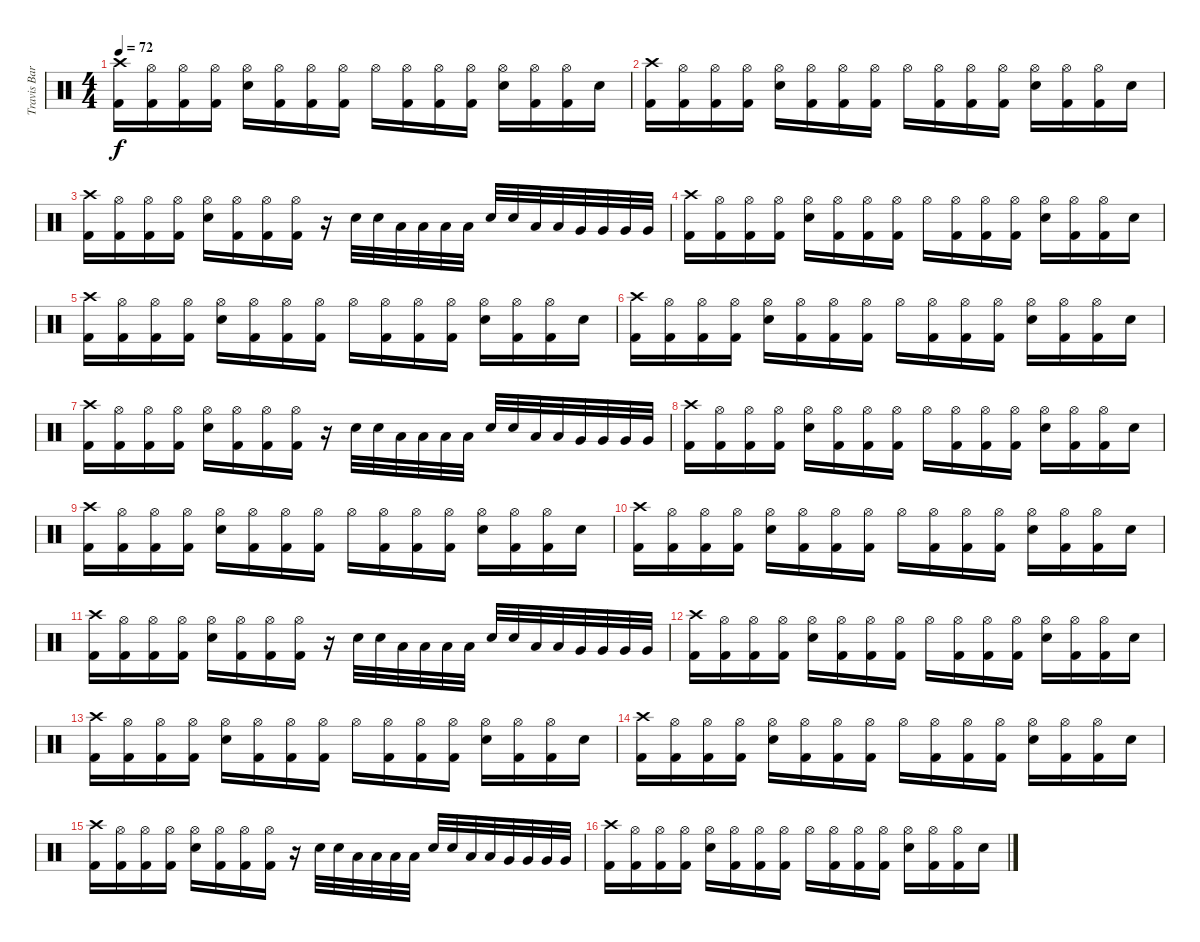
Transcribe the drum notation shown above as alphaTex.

\track ("Travis Barker" "Travis Bar") {instrument percussion}
\staff {score}
\articulation defaults
\ts (4 4)
\tempo 72
\clef neutral
\ks c
("Crash high (hit)" "Kick (hit) 2").16{dy f} ("Hi-Hat (open)" "Kick (hit) 2").16 ("Hi-Hat (open)" "Kick (hit) 2").16 ("Hi-Hat (open)" "Kick (hit) 2").16 ("Hi-Hat (open)" "Electric Snare (hit)").16 ("Hi-Hat (open)" "Kick (hit) 2").16 ("Hi-Hat (open)" "Kick (hit) 2").16 ("Hi-Hat (open)" "Kick (hit) 2").16 "Hi-Hat (open)".16 ("Hi-Hat (open)" "Kick (hit) 2").16 ("Hi-Hat (open)" "Kick (hit) 2").16 ("Hi-Hat (open)" "Kick (hit) 2").16 ("Hi-Hat (open)" "Electric Snare (hit)").16 ("Hi-Hat (open)" "Kick (hit) 2").16 ("Hi-Hat (open)" "Kick (hit) 2").16 "Electric Snare (hit)".16 |
("Crash high (hit)" "Kick (hit) 2").16 ("Hi-Hat (open)" "Kick (hit) 2").16 ("Hi-Hat (open)" "Kick (hit) 2").16 ("Hi-Hat (open)" "Kick (hit) 2").16 ("Hi-Hat (open)" "Electric Snare (hit)").16 ("Hi-Hat (open)" "Kick (hit) 2").16 ("Hi-Hat (open)" "Kick (hit) 2").16 ("Hi-Hat (open)" "Kick (hit) 2").16 "Hi-Hat (open)".16 ("Hi-Hat (open)" "Kick (hit) 2").16 ("Hi-Hat (open)" "Kick (hit) 2").16 ("Hi-Hat (open)" "Kick (hit) 2").16 ("Hi-Hat (open)" "Electric Snare (hit)").16 ("Hi-Hat (open)" "Kick (hit) 2").16 ("Hi-Hat (open)" "Kick (hit) 2").16 "Electric Snare (hit)".16 |
("Crash high (hit)" "Kick (hit) 2").16 ("Hi-Hat (open)" "Kick (hit) 2").16 ("Hi-Hat (open)" "Kick (hit) 2").16 ("Hi-Hat (open)" "Kick (hit) 2").16 ("Hi-Hat (open)" "Electric Snare (hit)").16 ("Hi-Hat (open)" "Kick (hit) 2").16 ("Hi-Hat (open)" "Kick (hit) 2").16 ("Hi-Hat (open)" "Kick (hit) 2").16 r.16 "Electric Snare (hit)".32 "Electric Snare (hit)".32 "Low Tom (hit)".32 "Low Tom (hit)".32 "Low Tom (hit)".32 "Low Tom (hit)".32 "Electric Snare (hit)".32 "Electric Snare (hit)".32 "Low Tom (hit)".32 "Low Tom (hit)".32 "Very Low Tom (hit)".32 "Very Low Tom (hit)".32 "Very Low Tom (hit)".32 "Very Low Tom (hit)".32 |
("Crash high (hit)" "Kick (hit) 2").16 ("Hi-Hat (open)" "Kick (hit) 2").16 ("Hi-Hat (open)" "Kick (hit) 2").16 ("Hi-Hat (open)" "Kick (hit) 2").16 ("Hi-Hat (open)" "Electric Snare (hit)").16 ("Hi-Hat (open)" "Kick (hit) 2").16 ("Hi-Hat (open)" "Kick (hit) 2").16 ("Hi-Hat (open)" "Kick (hit) 2").16 "Hi-Hat (open)".16 ("Hi-Hat (open)" "Kick (hit) 2").16 ("Hi-Hat (open)" "Kick (hit) 2").16 ("Hi-Hat (open)" "Kick (hit) 2").16 ("Hi-Hat (open)" "Electric Snare (hit)").16 ("Hi-Hat (open)" "Kick (hit) 2").16 ("Hi-Hat (open)" "Kick (hit) 2").16 "Electric Snare (hit)".16 |
("Crash high (hit)" "Kick (hit) 2").16 ("Hi-Hat (open)" "Kick (hit) 2").16 ("Hi-Hat (open)" "Kick (hit) 2").16 ("Hi-Hat (open)" "Kick (hit) 2").16 ("Hi-Hat (open)" "Electric Snare (hit)").16 ("Hi-Hat (open)" "Kick (hit) 2").16 ("Hi-Hat (open)" "Kick (hit) 2").16 ("Hi-Hat (open)" "Kick (hit) 2").16 "Hi-Hat (open)".16 ("Hi-Hat (open)" "Kick (hit) 2").16 ("Hi-Hat (open)" "Kick (hit) 2").16 ("Hi-Hat (open)" "Kick (hit) 2").16 ("Hi-Hat (open)" "Electric Snare (hit)").16 ("Hi-Hat (open)" "Kick (hit) 2").16 ("Hi-Hat (open)" "Kick (hit) 2").16 "Electric Snare (hit)".16 |
("Crash high (hit)" "Kick (hit) 2").16 ("Hi-Hat (open)" "Kick (hit) 2").16 ("Hi-Hat (open)" "Kick (hit) 2").16 ("Hi-Hat (open)" "Kick (hit) 2").16 ("Hi-Hat (open)" "Electric Snare (hit)").16 ("Hi-Hat (open)" "Kick (hit) 2").16 ("Hi-Hat (open)" "Kick (hit) 2").16 ("Hi-Hat (open)" "Kick (hit) 2").16 "Hi-Hat (open)".16 ("Hi-Hat (open)" "Kick (hit) 2").16 ("Hi-Hat (open)" "Kick (hit) 2").16 ("Hi-Hat (open)" "Kick (hit) 2").16 ("Hi-Hat (open)" "Electric Snare (hit)").16 ("Hi-Hat (open)" "Kick (hit) 2").16 ("Hi-Hat (open)" "Kick (hit) 2").16 "Electric Snare (hit)".16 |
("Crash high (hit)" "Kick (hit) 2").16 ("Hi-Hat (open)" "Kick (hit) 2").16 ("Hi-Hat (open)" "Kick (hit) 2").16 ("Hi-Hat (open)" "Kick (hit) 2").16 ("Hi-Hat (open)" "Electric Snare (hit)").16 ("Hi-Hat (open)" "Kick (hit) 2").16 ("Hi-Hat (open)" "Kick (hit) 2").16 ("Hi-Hat (open)" "Kick (hit) 2").16 r.16 "Electric Snare (hit)".32 "Electric Snare (hit)".32 "Low Tom (hit)".32 "Low Tom (hit)".32 "Low Tom (hit)".32 "Low Tom (hit)".32 "Electric Snare (hit)".32 "Electric Snare (hit)".32 "Low Tom (hit)".32 "Low Tom (hit)".32 "Very Low Tom (hit)".32 "Very Low Tom (hit)".32 "Very Low Tom (hit)".32 "Very Low Tom (hit)".32 |
("Crash high (hit)" "Kick (hit) 2").16 ("Hi-Hat (open)" "Kick (hit) 2").16 ("Hi-Hat (open)" "Kick (hit) 2").16 ("Hi-Hat (open)" "Kick (hit) 2").16 ("Hi-Hat (open)" "Electric Snare (hit)").16 ("Hi-Hat (open)" "Kick (hit) 2").16 ("Hi-Hat (open)" "Kick (hit) 2").16 ("Hi-Hat (open)" "Kick (hit) 2").16 "Hi-Hat (open)".16 ("Hi-Hat (open)" "Kick (hit) 2").16 ("Hi-Hat (open)" "Kick (hit) 2").16 ("Hi-Hat (open)" "Kick (hit) 2").16 ("Hi-Hat (open)" "Electric Snare (hit)").16 ("Hi-Hat (open)" "Kick (hit) 2").16 ("Hi-Hat (open)" "Kick (hit) 2").16 "Electric Snare (hit)".16 |
("Crash high (hit)" "Kick (hit) 2").16 ("Hi-Hat (open)" "Kick (hit) 2").16 ("Hi-Hat (open)" "Kick (hit) 2").16 ("Hi-Hat (open)" "Kick (hit) 2").16 ("Hi-Hat (open)" "Electric Snare (hit)").16 ("Hi-Hat (open)" "Kick (hit) 2").16 ("Hi-Hat (open)" "Kick (hit) 2").16 ("Hi-Hat (open)" "Kick (hit) 2").16 "Hi-Hat (open)".16 ("Hi-Hat (open)" "Kick (hit) 2").16 ("Hi-Hat (open)" "Kick (hit) 2").16 ("Hi-Hat (open)" "Kick (hit) 2").16 ("Hi-Hat (open)" "Electric Snare (hit)").16 ("Hi-Hat (open)" "Kick (hit) 2").16 ("Hi-Hat (open)" "Kick (hit) 2").16 "Electric Snare (hit)".16 |
("Crash high (hit)" "Kick (hit) 2").16 ("Hi-Hat (open)" "Kick (hit) 2").16 ("Hi-Hat (open)" "Kick (hit) 2").16 ("Hi-Hat (open)" "Kick (hit) 2").16 ("Hi-Hat (open)" "Electric Snare (hit)").16 ("Hi-Hat (open)" "Kick (hit) 2").16 ("Hi-Hat (open)" "Kick (hit) 2").16 ("Hi-Hat (open)" "Kick (hit) 2").16 "Hi-Hat (open)".16 ("Hi-Hat (open)" "Kick (hit) 2").16 ("Hi-Hat (open)" "Kick (hit) 2").16 ("Hi-Hat (open)" "Kick (hit) 2").16 ("Hi-Hat (open)" "Electric Snare (hit)").16 ("Hi-Hat (open)" "Kick (hit) 2").16 ("Hi-Hat (open)" "Kick (hit) 2").16 "Electric Snare (hit)".16 |
("Crash high (hit)" "Kick (hit) 2").16 ("Hi-Hat (open)" "Kick (hit) 2").16 ("Hi-Hat (open)" "Kick (hit) 2").16 ("Hi-Hat (open)" "Kick (hit) 2").16 ("Hi-Hat (open)" "Electric Snare (hit)").16 ("Hi-Hat (open)" "Kick (hit) 2").16 ("Hi-Hat (open)" "Kick (hit) 2").16 ("Hi-Hat (open)" "Kick (hit) 2").16 r.16 "Electric Snare (hit)".32 "Electric Snare (hit)".32 "Low Tom (hit)".32 "Low Tom (hit)".32 "Low Tom (hit)".32 "Low Tom (hit)".32 "Electric Snare (hit)".32 "Electric Snare (hit)".32 "Low Tom (hit)".32 "Low Tom (hit)".32 "Very Low Tom (hit)".32 "Very Low Tom (hit)".32 "Very Low Tom (hit)".32 "Very Low Tom (hit)".32 |
("Crash high (hit)" "Kick (hit) 2").16 ("Hi-Hat (open)" "Kick (hit) 2").16 ("Hi-Hat (open)" "Kick (hit) 2").16 ("Hi-Hat (open)" "Kick (hit) 2").16 ("Hi-Hat (open)" "Electric Snare (hit)").16 ("Hi-Hat (open)" "Kick (hit) 2").16 ("Hi-Hat (open)" "Kick (hit) 2").16 ("Hi-Hat (open)" "Kick (hit) 2").16 "Hi-Hat (open)".16 ("Hi-Hat (open)" "Kick (hit) 2").16 ("Hi-Hat (open)" "Kick (hit) 2").16 ("Hi-Hat (open)" "Kick (hit) 2").16 ("Hi-Hat (open)" "Electric Snare (hit)").16 ("Hi-Hat (open)" "Kick (hit) 2").16 ("Hi-Hat (open)" "Kick (hit) 2").16 "Electric Snare (hit)".16 |
("Crash high (hit)" "Kick (hit) 2").16 ("Hi-Hat (open)" "Kick (hit) 2").16 ("Hi-Hat (open)" "Kick (hit) 2").16 ("Hi-Hat (open)" "Kick (hit) 2").16 ("Hi-Hat (open)" "Electric Snare (hit)").16 ("Hi-Hat (open)" "Kick (hit) 2").16 ("Hi-Hat (open)" "Kick (hit) 2").16 ("Hi-Hat (open)" "Kick (hit) 2").16 "Hi-Hat (open)".16 ("Hi-Hat (open)" "Kick (hit) 2").16 ("Hi-Hat (open)" "Kick (hit) 2").16 ("Hi-Hat (open)" "Kick (hit) 2").16 ("Hi-Hat (open)" "Electric Snare (hit)").16 ("Hi-Hat (open)" "Kick (hit) 2").16 ("Hi-Hat (open)" "Kick (hit) 2").16 "Electric Snare (hit)".16 |
("Crash high (hit)" "Kick (hit) 2").16 ("Hi-Hat (open)" "Kick (hit) 2").16 ("Hi-Hat (open)" "Kick (hit) 2").16 ("Hi-Hat (open)" "Kick (hit) 2").16 ("Hi-Hat (open)" "Electric Snare (hit)").16 ("Hi-Hat (open)" "Kick (hit) 2").16 ("Hi-Hat (open)" "Kick (hit) 2").16 ("Hi-Hat (open)" "Kick (hit) 2").16 "Hi-Hat (open)".16 ("Hi-Hat (open)" "Kick (hit) 2").16 ("Hi-Hat (open)" "Kick (hit) 2").16 ("Hi-Hat (open)" "Kick (hit) 2").16 ("Hi-Hat (open)" "Electric Snare (hit)").16 ("Hi-Hat (open)" "Kick (hit) 2").16 ("Hi-Hat (open)" "Kick (hit) 2").16 "Electric Snare (hit)".16 |
("Crash high (hit)" "Kick (hit) 2").16 ("Hi-Hat (open)" "Kick (hit) 2").16 ("Hi-Hat (open)" "Kick (hit) 2").16 ("Hi-Hat (open)" "Kick (hit) 2").16 ("Hi-Hat (open)" "Electric Snare (hit)").16 ("Hi-Hat (open)" "Kick (hit) 2").16 ("Hi-Hat (open)" "Kick (hit) 2").16 ("Hi-Hat (open)" "Kick (hit) 2").16 r.16 "Electric Snare (hit)".32 "Electric Snare (hit)".32 "Low Tom (hit)".32 "Low Tom (hit)".32 "Low Tom (hit)".32 "Low Tom (hit)".32 "Electric Snare (hit)".32 "Electric Snare (hit)".32 "Low Tom (hit)".32 "Low Tom (hit)".32 "Very Low Tom (hit)".32 "Very Low Tom (hit)".32 "Very Low Tom (hit)".32 "Very Low Tom (hit)".32 |
("Crash high (hit)" "Kick (hit) 2").16 ("Hi-Hat (open)" "Kick (hit) 2").16 ("Hi-Hat (open)" "Kick (hit) 2").16 ("Hi-Hat (open)" "Kick (hit) 2").16 ("Hi-Hat (open)" "Electric Snare (hit)").16 ("Hi-Hat (open)" "Kick (hit) 2").16 ("Hi-Hat (open)" "Kick (hit) 2").16 ("Hi-Hat (open)" "Kick (hit) 2").16 "Hi-Hat (open)".16 ("Hi-Hat (open)" "Kick (hit) 2").16 ("Hi-Hat (open)" "Kick (hit) 2").16 ("Hi-Hat (open)" "Kick (hit) 2").16 ("Hi-Hat (open)" "Electric Snare (hit)").16 ("Hi-Hat (open)" "Kick (hit) 2").16 ("Hi-Hat (open)" "Kick (hit) 2").16 "Electric Snare (hit)".16
